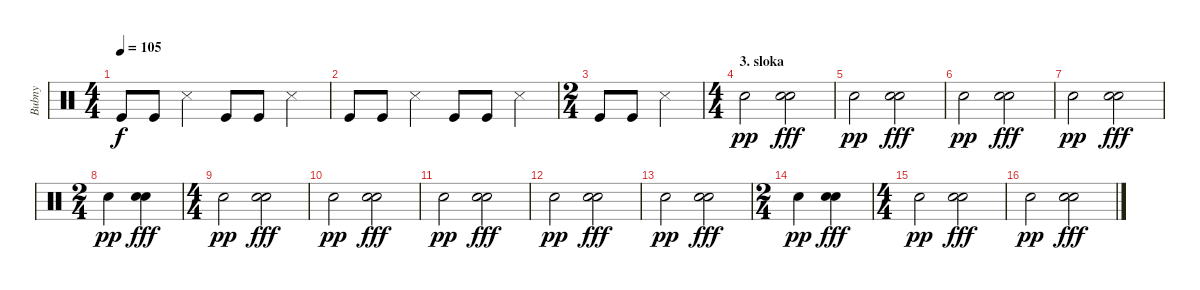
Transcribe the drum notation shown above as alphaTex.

\track ("Bubny" "Bubny") {instrument percussion}
\staff {score}
\articulation defaults
\ts (4 4)
\tempo 105
\clef neutral
\ks c "Kick (hit)".8{dy f} "Kick (hit)".8 "Snare (side stick) 3".4 "Kick (hit)".8 "Kick (hit)".8 "Snare (side stick) 3".4
|
"Kick (hit)".8 "Kick (hit)".8 "Snare (side stick) 3".4 "Kick (hit)".8 "Kick (hit)".8 "Snare (side stick) 3".4 |
\ts (2 4)
"Kick (hit)".8 "Kick (hit)".8 "Snare (side stick) 3".4 |
\ts (4 4)
\section ("" "3. sloka")
"Electric Snare (hit)"{tr (40 64)}.2{dy pp} ("Snare (hit) 2" "Electric Snare (hit)").2{dy fff} |
"Electric Snare (hit)"{tr (40 64)}.2{dy pp} ("Snare (hit) 2" "Electric Snare (hit)").2{dy fff} |
"Electric Snare (hit)"{tr (40 64)}.2{dy pp} ("Snare (hit) 2" "Electric Snare (hit)").2{dy fff} |
"Electric Snare (hit)"{tr (40 64)}.2{dy pp} ("Snare (hit) 2" "Electric Snare (hit)").2{dy fff} |
\ts (2 4)
"Electric Snare (hit)"{tr (40 64)}.4{dy pp} ("Snare (hit) 2" "Electric Snare (hit)").4{dy fff} |
\ts (4 4)
"Electric Snare (hit)"{tr (40 64)}.2{dy pp} ("Snare (hit) 2" "Electric Snare (hit)").2{dy fff} |
"Electric Snare (hit)"{tr (40 64)}.2{dy pp} ("Snare (hit) 2" "Electric Snare (hit)").2{dy fff} |
"Electric Snare (hit)"{tr (40 64)}.2{dy pp} ("Snare (hit) 2" "Electric Snare (hit)").2{dy fff} |
"Electric Snare (hit)"{tr (40 64)}.2{dy pp} ("Snare (hit) 2" "Electric Snare (hit)").2{dy fff} |
"Electric Snare (hit)"{tr (40 64)}.2{dy pp} ("Snare (hit) 2" "Electric Snare (hit)").2{dy fff} |
\ts (2 4)
"Electric Snare (hit)"{tr (40 64)}.4{dy pp} ("Snare (hit) 2" "Electric Snare (hit)").4{dy fff} |
\ts (4 4)
"Electric Snare (hit)"{tr (40 64)}.2{dy pp} ("Snare (hit) 2" "Electric Snare (hit)").2{dy fff} |
"Electric Snare (hit)"{tr (40 64)}.2{dy pp} ("Snare (hit) 2" "Electric Snare (hit)").2{dy fff}
